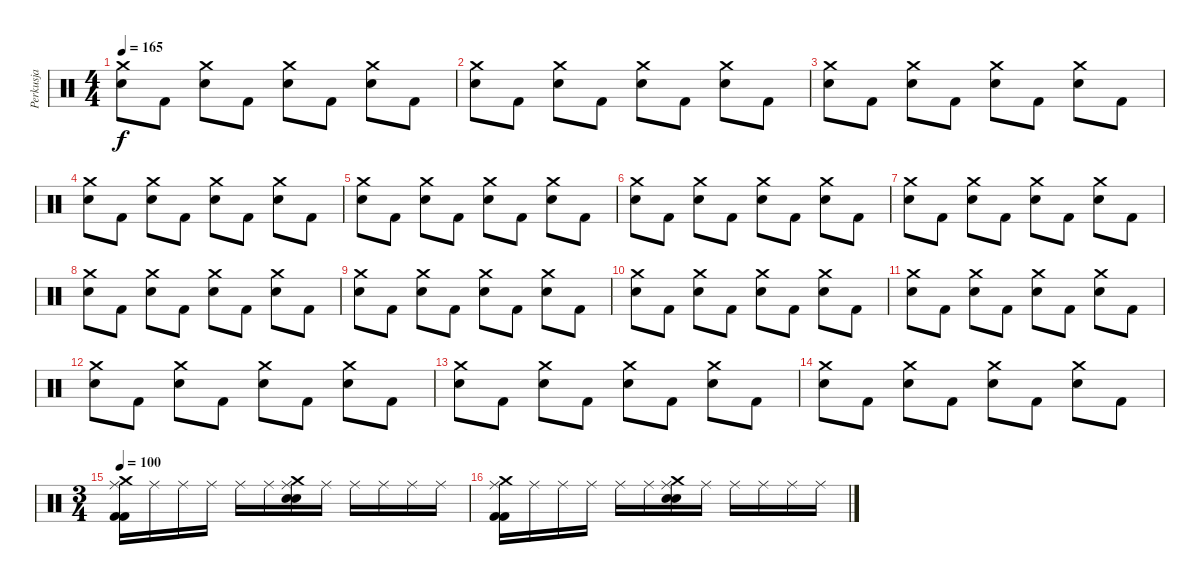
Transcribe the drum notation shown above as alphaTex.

\track ("Perkusja" "Perkusja") {instrument percussion}
\staff {score}
\articulation defaults
\ts (4 4)
\tempo 165
\clef neutral
\ks c
("Crash medium (hit)" "Snare (hit) 2").8{dy f} "Kick (hit) 2".8 ("Crash medium (hit)" "Snare (hit) 2").8 "Kick (hit) 2".8 ("Crash medium (hit)" "Snare (hit) 2").8 "Kick (hit) 2".8 ("Crash medium (hit)" "Snare (hit) 2").8 "Kick (hit) 2".8 |
("Crash medium (hit)" "Snare (hit) 2").8 "Kick (hit) 2".8 ("Crash medium (hit)" "Snare (hit) 2").8 "Kick (hit) 2".8 ("Crash medium (hit)" "Snare (hit) 2").8 "Kick (hit) 2".8 ("Crash medium (hit)" "Snare (hit) 2").8 "Kick (hit) 2".8 |
("Crash medium (hit)" "Snare (hit) 2").8 "Kick (hit) 2".8 ("Crash medium (hit)" "Snare (hit) 2").8 "Kick (hit) 2".8 ("Crash medium (hit)" "Snare (hit) 2").8 "Kick (hit) 2".8 ("Crash medium (hit)" "Snare (hit) 2").8 "Kick (hit) 2".8 |
("Crash medium (hit)" "Snare (hit) 2").8 "Kick (hit) 2".8 ("Crash medium (hit)" "Snare (hit) 2").8 "Kick (hit) 2".8 ("Crash medium (hit)" "Snare (hit) 2").8 "Kick (hit) 2".8 ("Crash medium (hit)" "Snare (hit) 2").8 "Kick (hit) 2".8 |
("Crash medium (hit)" "Snare (hit) 2").8 "Kick (hit) 2".8 ("Crash medium (hit)" "Snare (hit) 2").8 "Kick (hit) 2".8 ("Crash medium (hit)" "Snare (hit) 2").8 "Kick (hit) 2".8 ("Crash medium (hit)" "Snare (hit) 2").8 "Kick (hit) 2".8 |
("Crash medium (hit)" "Snare (hit) 2").8 "Kick (hit) 2".8 ("Crash medium (hit)" "Snare (hit) 2").8 "Kick (hit) 2".8 ("Crash medium (hit)" "Snare (hit) 2").8 "Kick (hit) 2".8 ("Crash medium (hit)" "Snare (hit) 2").8 "Kick (hit) 2".8 |
("Crash medium (hit)" "Snare (hit) 2").8 "Kick (hit) 2".8 ("Crash medium (hit)" "Snare (hit) 2").8 "Kick (hit) 2".8 ("Crash medium (hit)" "Snare (hit) 2").8 "Kick (hit) 2".8 ("Crash medium (hit)" "Snare (hit) 2").8 "Kick (hit) 2".8 |
("Crash medium (hit)" "Snare (hit) 2").8 "Kick (hit) 2".8 ("Crash medium (hit)" "Snare (hit) 2").8 "Kick (hit) 2".8 ("Crash medium (hit)" "Snare (hit) 2").8 "Kick (hit) 2".8 ("Crash medium (hit)" "Snare (hit) 2").8 "Kick (hit) 2".8 |
("Crash medium (hit)" "Snare (hit) 2").8 "Kick (hit) 2".8 ("Crash medium (hit)" "Snare (hit) 2").8 "Kick (hit) 2".8 ("Crash medium (hit)" "Snare (hit) 2").8 "Kick (hit) 2".8 ("Crash medium (hit)" "Snare (hit) 2").8 "Kick (hit) 2".8 |
("Crash medium (hit)" "Snare (hit) 2").8 "Kick (hit) 2".8 ("Crash medium (hit)" "Snare (hit) 2").8 "Kick (hit) 2".8 ("Crash medium (hit)" "Snare (hit) 2").8 "Kick (hit) 2".8 ("Crash medium (hit)" "Snare (hit) 2").8 "Kick (hit) 2".8 |
("Crash medium (hit)" "Snare (hit) 2").8 "Kick (hit) 2".8 ("Crash medium (hit)" "Snare (hit) 2").8 "Kick (hit) 2".8 ("Crash medium (hit)" "Snare (hit) 2").8 "Kick (hit) 2".8 ("Crash medium (hit)" "Snare (hit) 2").8 "Kick (hit) 2".8 |
("Crash medium (hit)" "Snare (hit) 2").8 "Kick (hit) 2".8 ("Crash medium (hit)" "Snare (hit) 2").8 "Kick (hit) 2".8 ("Crash medium (hit)" "Snare (hit) 2").8 "Kick (hit) 2".8 ("Crash medium (hit)" "Snare (hit) 2").8 "Kick (hit) 2".8 |
("Crash medium (hit)" "Snare (hit) 2").8 "Kick (hit) 2".8 ("Crash medium (hit)" "Snare (hit) 2").8 "Kick (hit) 2".8 ("Crash medium (hit)" "Snare (hit) 2").8 "Kick (hit) 2".8 ("Crash medium (hit)" "Snare (hit) 2").8 "Kick (hit) 2".8 |
("Crash medium (hit)" "Snare (hit) 2").8 "Kick (hit) 2".8 ("Crash medium (hit)" "Snare (hit) 2").8 "Kick (hit) 2".8 ("Crash medium (hit)" "Snare (hit) 2").8 "Kick (hit) 2".8 ("Crash medium (hit)" "Snare (hit) 2").8 "Kick (hit) 2".8 |
\ts (3 4)
\tempo 100
("Crash medium (hit)" "Ride (middle)" "Kick (hit) 2" "Kick (hit) 2").16 "Ride (middle)".16 "Ride (middle)".16 "Ride (middle)".16 "Ride (middle)".16 "Ride (middle)".16 ("Crash medium (hit)" "Ride (middle)" "Snare (hit) 2" "Snare (hit) 2").16 "Ride (middle)".16 "Ride (middle)".16 "Ride (middle)".16 "Ride (middle)".16 "Ride (middle)".16 |
("Crash medium (hit)" "Ride (middle)" "Kick (hit) 2" "Kick (hit) 2").16 "Ride (middle)".16 "Ride (middle)".16 "Ride (middle)".16 "Ride (middle)".16 "Ride (middle)".16 ("Crash medium (hit)" "Ride (middle)" "Snare (hit) 2" "Snare (hit) 2").16 "Ride (middle)".16 "Ride (middle)".16 "Ride (middle)".16 "Ride (middle)".16 "Ride (middle)".16
